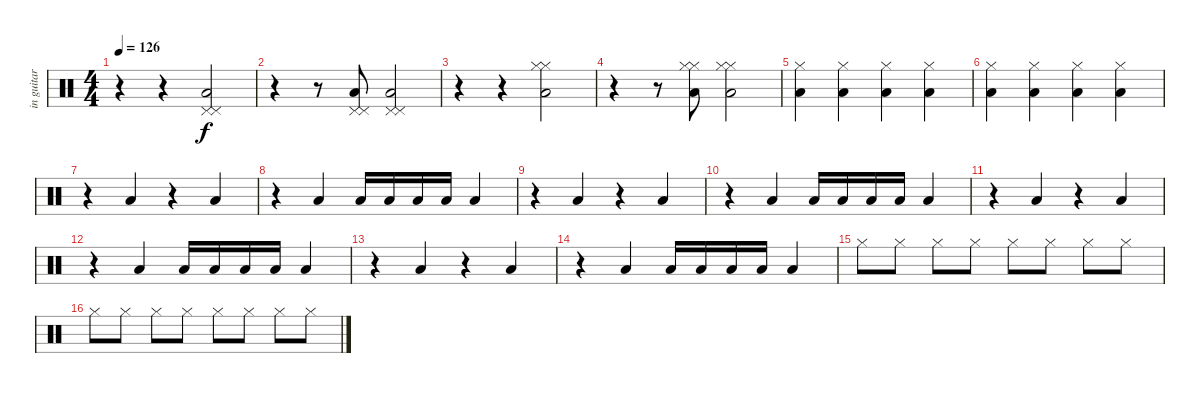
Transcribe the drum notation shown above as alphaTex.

\track ("in guitar" "in guitar") {instrument percussion}
\staff {score}
\articulation defaults
\ts (4 4)
\tempo 126
\clef neutral
\ks c
r.4{dy f} r.4 ("Pedal Hi-Hat (hit)" "Low Floor Tom (hit)" "Pedal Hi-Hat (hit)").2 |
r.4 r.8 ("Pedal Hi-Hat (hit)" "Low Floor Tom (hit)" "Pedal Hi-Hat (hit)").8 ("Pedal Hi-Hat (hit)" "Low Floor Tom (hit)" "Pedal Hi-Hat (hit)").2 |
r.4 r.4 ("Hi-Hat (closed)" "Low Floor Tom (hit)" "Hi-Hat (closed)").2 |
r.4 r.8 ("Hi-Hat (closed)" "Low Floor Tom (hit)" "Hi-Hat (closed)").8 ("Hi-Hat (closed)" "Low Floor Tom (hit)" "Hi-Hat (closed)").2 |
("Low Tom (hit)" "Hi-Hat (closed)").4 ("Low Tom (hit)" "Hi-Hat (closed)").4 ("Low Tom (hit)" "Hi-Hat (closed)").4 ("Low Tom (hit)" "Hi-Hat (closed)").4 |
("Low Tom (hit)" "Hi-Hat (closed)").4 ("Low Tom (hit)" "Hi-Hat (closed)").4 ("Low Tom (hit)" "Hi-Hat (closed)").4 ("Low Tom (hit)" "Hi-Hat (closed)").4 |
r.4 "Low Tom (hit)".4 r.4 "Low Tom (hit)".4 |
r.4 "Low Tom (hit)".4 "Low Tom (hit)".16 "Low Tom (hit)".16 "Low Tom (hit)".16 "Low Tom (hit)".16 "Low Tom (hit)".4 |
r.4 "Low Tom (hit)".4 r.4 "Low Tom (hit)".4 |
r.4 "Low Tom (hit)".4 "Low Tom (hit)".16 "Low Tom (hit)".16 "Low Tom (hit)".16 "Low Tom (hit)".16 "Low Tom (hit)".4 |
r.4 "Low Tom (hit)".4 r.4 "Low Tom (hit)".4 |
r.4 "Low Tom (hit)".4 "Low Tom (hit)".16 "Low Tom (hit)".16 "Low Tom (hit)".16 "Low Tom (hit)".16 "Low Tom (hit)".4 |
r.4 "Low Tom (hit)".4 r.4 "Low Tom (hit)".4 |
r.4 "Low Tom (hit)".4 "Low Tom (hit)".16 "Low Tom (hit)".16 "Low Tom (hit)".16 "Low Tom (hit)".16 "Low Tom (hit)".4 |
"Hi-Hat (closed)".8 "Hi-Hat (closed)".8 "Hi-Hat (closed)".8 "Hi-Hat (closed)".8 "Hi-Hat (closed)".8 "Hi-Hat (closed)".8 "Hi-Hat (closed)".8 "Hi-Hat (closed)".8 |
"Hi-Hat (closed)".8 "Hi-Hat (closed)".8 "Hi-Hat (closed)".8 "Hi-Hat (closed)".8 "Hi-Hat (closed)".8 "Hi-Hat (closed)".8 "Hi-Hat (closed)".8 "Hi-Hat (closed)".8
